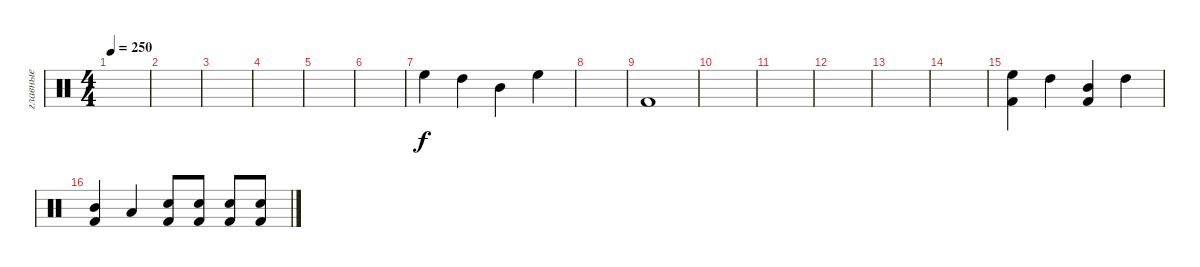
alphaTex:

\track ("главные" "главные") {instrument percussion}
\staff {score}
\articulation defaults
\ts (4 4)
\tempo 250
\clef neutral
\ks c
|
|
|
|
|
|
"High Floor Tom (hit)".4 "High Tom (hit)".4 "Mid Tom (hit)".4 "High Floor Tom (hit)".4 |
|
"Kick (hit) 2".1 |
|
|
|
|
|
("High Floor Tom (hit)" "Kick (hit) 2").4 "High Tom (hit)".4 ("Mid Tom (hit)" "Kick (hit) 2").4 "High Tom (hit)".4 |
("Mid Tom (hit)" "Kick (hit) 2").4 "Low Tom (hit)".4 ("Electric Snare (hit)" "Kick (hit) 2").8 ("Electric Snare (hit)" "Kick (hit) 2").8 ("Electric Snare (hit)" "Kick (hit) 2").8 ("Electric Snare (hit)" "Kick (hit) 2").8
